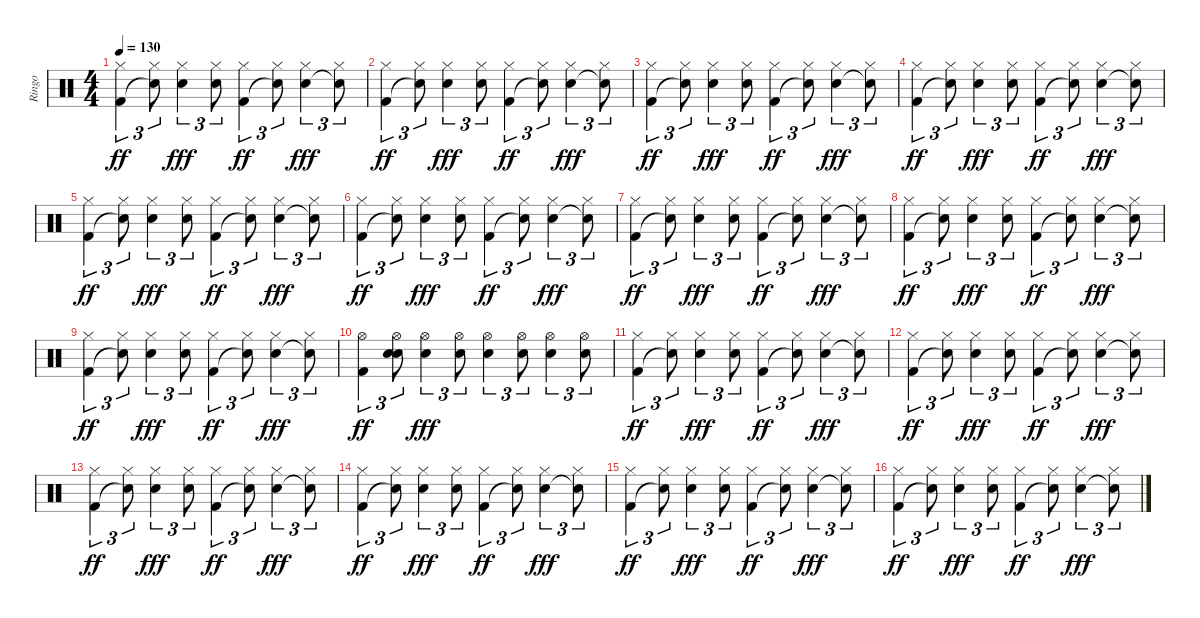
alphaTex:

\track ("Ringo" "Ringo") {instrument percussion}
\staff {score}
\articulation defaults
\ts (4 4)
\tempo 130
\clef neutral
\ks c
("Hi-Hat (closed)" "Kick (hit) 2").4{tu (3 2) dy ff} ("Hi-Hat (closed)" "Snare (hit)"{t}).8{tu (3 2)} ("Hi-Hat (closed)" "Electric Snare (hit)").4{tu (3 2) dy fff} ("Hi-Hat (closed)" "Electric Snare (hit)").8{tu (3 2)} ("Hi-Hat (closed)" "Kick (hit) 2").4{tu (3 2) dy ff} ("Hi-Hat (closed)" "Snare (hit)"{t}).8{tu (3 2)} ("Hi-Hat (closed)" "Electric Snare (hit)").4{tu (3 2) dy fff} ("Hi-Hat (closed)" "Snare (hit)"{t}).8{tu (3 2)} |
("Hi-Hat (closed)" "Kick (hit) 2").4{tu (3 2) dy ff} ("Hi-Hat (closed)" "Snare (hit)"{t}).8{tu (3 2)} ("Hi-Hat (closed)" "Electric Snare (hit)").4{tu (3 2) dy fff} ("Hi-Hat (closed)" "Electric Snare (hit)").8{tu (3 2)} ("Hi-Hat (closed)" "Kick (hit) 2").4{tu (3 2) dy ff} ("Hi-Hat (closed)" "Snare (hit)"{t}).8{tu (3 2)} ("Hi-Hat (closed)" "Electric Snare (hit)").4{tu (3 2) dy fff} ("Hi-Hat (closed)" "Snare (hit)"{t}).8{tu (3 2)} |
("Hi-Hat (closed)" "Kick (hit) 2").4{tu (3 2) dy ff} ("Hi-Hat (closed)" "Snare (hit)"{t}).8{tu (3 2)} ("Hi-Hat (closed)" "Electric Snare (hit)").4{tu (3 2) dy fff} ("Hi-Hat (closed)" "Electric Snare (hit)").8{tu (3 2)} ("Hi-Hat (closed)" "Kick (hit) 2").4{tu (3 2) dy ff} ("Hi-Hat (closed)" "Snare (hit)"{t}).8{tu (3 2)} ("Hi-Hat (closed)" "Electric Snare (hit)").4{tu (3 2) dy fff} ("Hi-Hat (closed)" "Snare (hit)"{t}).8{tu (3 2)} |
("Hi-Hat (closed)" "Kick (hit) 2").4{tu (3 2) dy ff} ("Hi-Hat (closed)" "Snare (hit)"{t}).8{tu (3 2)} ("Hi-Hat (closed)" "Electric Snare (hit)").4{tu (3 2) dy fff} ("Hi-Hat (closed)" "Electric Snare (hit)").8{tu (3 2)} ("Hi-Hat (closed)" "Kick (hit) 2").4{tu (3 2) dy ff} ("Hi-Hat (closed)" "Snare (hit)"{t}).8{tu (3 2)} ("Hi-Hat (closed)" "Electric Snare (hit)").4{tu (3 2) dy fff} ("Hi-Hat (closed)" "Snare (hit)"{t}).8{tu (3 2)} |
("Hi-Hat (closed)" "Kick (hit) 2").4{tu (3 2) dy ff} ("Hi-Hat (closed)" "Snare (hit)"{t}).8{tu (3 2)} ("Hi-Hat (closed)" "Electric Snare (hit)").4{tu (3 2) dy fff} ("Hi-Hat (closed)" "Electric Snare (hit)").8{tu (3 2)} ("Hi-Hat (closed)" "Kick (hit) 2").4{tu (3 2) dy ff} ("Hi-Hat (closed)" "Snare (hit)"{t}).8{tu (3 2)} ("Hi-Hat (closed)" "Electric Snare (hit)").4{tu (3 2) dy fff} ("Hi-Hat (closed)" "Snare (hit)"{t}).8{tu (3 2)} |
("Hi-Hat (closed)" "Kick (hit) 2").4{tu (3 2) dy ff} ("Hi-Hat (closed)" "Snare (hit)"{t}).8{tu (3 2)} ("Hi-Hat (closed)" "Electric Snare (hit)").4{tu (3 2) dy fff} ("Hi-Hat (closed)" "Electric Snare (hit)").8{tu (3 2)} ("Hi-Hat (closed)" "Kick (hit) 2").4{tu (3 2) dy ff} ("Hi-Hat (closed)" "Snare (hit)"{t}).8{tu (3 2)} ("Hi-Hat (closed)" "Electric Snare (hit)").4{tu (3 2) dy fff} ("Hi-Hat (closed)" "Snare (hit)"{t}).8{tu (3 2)} |
("Hi-Hat (closed)" "Kick (hit) 2").4{tu (3 2) dy ff} ("Hi-Hat (closed)" "Snare (hit)"{t}).8{tu (3 2)} ("Hi-Hat (closed)" "Electric Snare (hit)").4{tu (3 2) dy fff} ("Hi-Hat (closed)" "Electric Snare (hit)").8{tu (3 2)} ("Hi-Hat (closed)" "Kick (hit) 2").4{tu (3 2) dy ff} ("Hi-Hat (closed)" "Snare (hit)"{t}).8{tu (3 2)} ("Hi-Hat (closed)" "Electric Snare (hit)").4{tu (3 2) dy fff} ("Hi-Hat (closed)" "Snare (hit)"{t}).8{tu (3 2)} |
("Hi-Hat (closed)" "Kick (hit) 2").4{tu (3 2) dy ff} ("Hi-Hat (closed)" "Snare (hit)"{t}).8{tu (3 2)} ("Hi-Hat (closed)" "Electric Snare (hit)").4{tu (3 2) dy fff} ("Hi-Hat (closed)" "Electric Snare (hit)").8{tu (3 2)} ("Hi-Hat (closed)" "Kick (hit) 2").4{tu (3 2) dy ff} ("Hi-Hat (closed)" "Snare (hit)"{t}).8{tu (3 2)} ("Hi-Hat (closed)" "Electric Snare (hit)").4{tu (3 2) dy fff} ("Hi-Hat (closed)" "Snare (hit)"{t}).8{tu (3 2)} |
("Hi-Hat (closed)" "Kick (hit) 2").4{tu (3 2) dy ff} ("Hi-Hat (closed)" "Snare (hit)"{t}).8{tu (3 2)} ("Hi-Hat (closed)" "Electric Snare (hit)").4{tu (3 2) dy fff} ("Hi-Hat (closed)" "Electric Snare (hit)").8{tu (3 2)} ("Hi-Hat (closed)" "Kick (hit) 2").4{tu (3 2) dy ff} ("Hi-Hat (closed)" "Snare (hit)"{t}).8{tu (3 2)} ("Hi-Hat (closed)" "Electric Snare (hit)").4{tu (3 2) dy fff} ("Hi-Hat (closed)" "Snare (hit)"{t}).8{tu (3 2)} |
("Hi-Hat (open)" "Kick (hit) 2").4{tu (3 2) dy ff} ("Hi-Hat (open)" "Electric Snare (hit)" "Snare (hit)").8{tu (3 2)} ("Hi-Hat (open)" "Electric Snare (hit)").4{tu (3 2) dy fff} ("Hi-Hat (open)" "Electric Snare (hit)").8{tu (3 2)} ("Hi-Hat (open)" "Electric Snare (hit)").4{tu (3 2)} ("Hi-Hat (open)" "Electric Snare (hit)").8{tu (3 2)} ("Hi-Hat (open)" "Electric Snare (hit)").4{tu (3 2)} ("Hi-Hat (open)" "Electric Snare (hit)").8{tu (3 2)} |
("Hi-Hat (closed)" "Kick (hit) 2").4{tu (3 2) dy ff} ("Hi-Hat (closed)" "Snare (hit)"{t}).8{tu (3 2)} ("Hi-Hat (closed)" "Electric Snare (hit)").4{tu (3 2) dy fff} ("Hi-Hat (closed)" "Electric Snare (hit)").8{tu (3 2)} ("Hi-Hat (closed)" "Kick (hit) 2").4{tu (3 2) dy ff} ("Hi-Hat (closed)" "Snare (hit)"{t}).8{tu (3 2)} ("Hi-Hat (closed)" "Electric Snare (hit)").4{tu (3 2) dy fff} ("Hi-Hat (closed)" "Snare (hit)"{t}).8{tu (3 2)} |
("Hi-Hat (closed)" "Kick (hit) 2").4{tu (3 2) dy ff} ("Hi-Hat (closed)" "Snare (hit)"{t}).8{tu (3 2)} ("Hi-Hat (closed)" "Electric Snare (hit)").4{tu (3 2) dy fff} ("Hi-Hat (closed)" "Electric Snare (hit)").8{tu (3 2)} ("Hi-Hat (closed)" "Kick (hit) 2").4{tu (3 2) dy ff} ("Hi-Hat (closed)" "Snare (hit)"{t}).8{tu (3 2)} ("Hi-Hat (closed)" "Electric Snare (hit)").4{tu (3 2) dy fff} ("Hi-Hat (closed)" "Snare (hit)"{t}).8{tu (3 2)} |
("Hi-Hat (closed)" "Kick (hit) 2").4{tu (3 2) dy ff} ("Hi-Hat (closed)" "Snare (hit)"{t}).8{tu (3 2)} ("Hi-Hat (closed)" "Electric Snare (hit)").4{tu (3 2) dy fff} ("Hi-Hat (closed)" "Electric Snare (hit)").8{tu (3 2)} ("Hi-Hat (closed)" "Kick (hit) 2").4{tu (3 2) dy ff} ("Hi-Hat (closed)" "Snare (hit)"{t}).8{tu (3 2)} ("Hi-Hat (closed)" "Electric Snare (hit)").4{tu (3 2) dy fff} ("Hi-Hat (closed)" "Snare (hit)"{t}).8{tu (3 2)} |
("Hi-Hat (closed)" "Kick (hit) 2").4{tu (3 2) dy ff} ("Hi-Hat (closed)" "Snare (hit)"{t}).8{tu (3 2)} ("Hi-Hat (closed)" "Electric Snare (hit)").4{tu (3 2) dy fff} ("Hi-Hat (closed)" "Electric Snare (hit)").8{tu (3 2)} ("Hi-Hat (closed)" "Kick (hit) 2").4{tu (3 2) dy ff} ("Hi-Hat (closed)" "Snare (hit)"{t}).8{tu (3 2)} ("Hi-Hat (closed)" "Electric Snare (hit)").4{tu (3 2) dy fff} ("Hi-Hat (closed)" "Snare (hit)"{t}).8{tu (3 2)} |
("Hi-Hat (closed)" "Kick (hit) 2").4{tu (3 2) dy ff} ("Hi-Hat (closed)" "Snare (hit)"{t}).8{tu (3 2)} ("Hi-Hat (closed)" "Electric Snare (hit)").4{tu (3 2) dy fff} ("Hi-Hat (closed)" "Electric Snare (hit)").8{tu (3 2)} ("Hi-Hat (closed)" "Kick (hit) 2").4{tu (3 2) dy ff} ("Hi-Hat (closed)" "Snare (hit)"{t}).8{tu (3 2)} ("Hi-Hat (closed)" "Electric Snare (hit)").4{tu (3 2) dy fff} ("Hi-Hat (closed)" "Snare (hit)"{t}).8{tu (3 2)} |
("Hi-Hat (closed)" "Kick (hit) 2").4{tu (3 2) dy ff} ("Hi-Hat (closed)" "Snare (hit)"{t}).8{tu (3 2)} ("Hi-Hat (closed)" "Electric Snare (hit)").4{tu (3 2) dy fff} ("Hi-Hat (closed)" "Electric Snare (hit)").8{tu (3 2)} ("Hi-Hat (closed)" "Kick (hit) 2").4{tu (3 2) dy ff} ("Hi-Hat (closed)" "Snare (hit)"{t}).8{tu (3 2)} ("Hi-Hat (closed)" "Electric Snare (hit)").4{tu (3 2) dy fff} ("Hi-Hat (closed)" "Snare (hit)"{t}).8{tu (3 2)}
